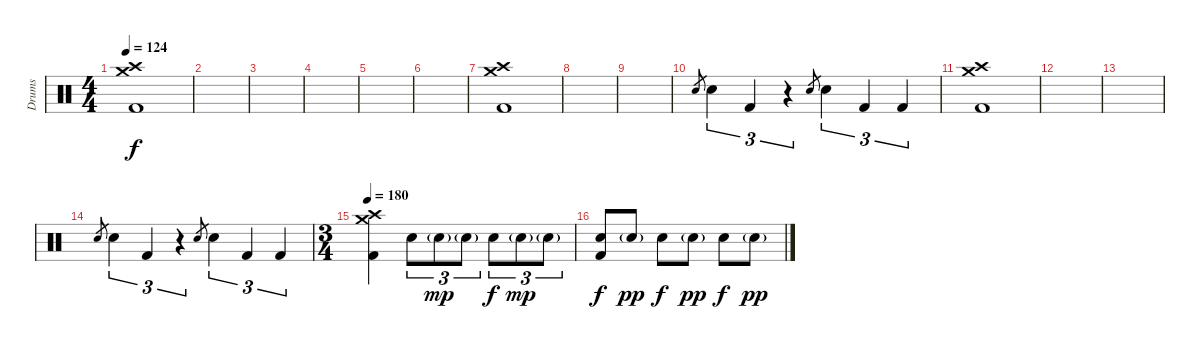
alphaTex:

\track ("Drums" "Drums") {instrument percussion}
\staff {score}
\articulation defaults
\ts (4 4)
\tempo 124
\clef neutral
\ks c
("Crash high (hit)" "Crash medium (hit)" "Kick (hit) 2").1{dy f} |
|
|
|
|
|
("Crash high (hit)" "Crash medium (hit)" "Kick (hit) 2").1 |
|
|
"Electric Snare (hit)".8{gr} "Electric Snare (hit)".4{tu (3 2)} "Kick (hit) 2".4{tu (3 2)} r.4{tu (3 2)} "Electric Snare (hit)".8{gr} "Electric Snare (hit)".4{tu (3 2)} "Kick (hit) 2".4{tu (3 2)} "Kick (hit) 2".4{tu (3 2)} |
("Crash high (hit)" "Crash medium (hit)" "Kick (hit) 2").1 |
|
|
"Electric Snare (hit)".8{gr} "Electric Snare (hit)".4{tu (3 2)} "Kick (hit) 2".4{tu (3 2)} r.4{tu (3 2)} "Electric Snare (hit)".8{gr} "Electric Snare (hit)".4{tu (3 2)} "Kick (hit) 2".4{tu (3 2)} "Kick (hit) 2".4{tu (3 2)} |
\ts (3 4)
\tempo 180
("Crash high (hit)" "Crash medium (hit)" "Kick (hit) 2").4 "Electric Snare (hit)".8{tu (3 2)} "Electric Snare (hit)"{g}.8{tu (3 2) dy mp} "Electric Snare (hit)"{g}.8{tu (3 2)} "Electric Snare (hit)".8{tu (3 2) dy f} "Electric Snare (hit)"{g}.8{tu (3 2) dy mp} "Electric Snare (hit)"{g}.8{tu (3 2)} |
("Electric Snare (hit)" "Kick (hit) 2").8{dy f} "Electric Snare (hit)"{g}.8{dy pp} "Electric Snare (hit)".8{dy f} "Electric Snare (hit)"{g}.8{dy pp} "Electric Snare (hit)".8{dy f} "Electric Snare (hit)"{g}.8{dy pp}
